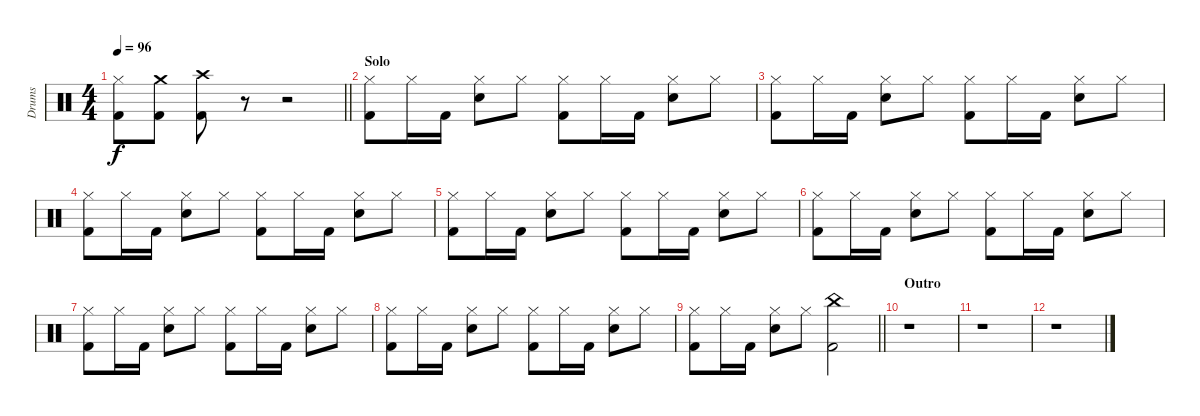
\track ("Drums" "Drums") {instrument percussion}
\staff {score}
\articulation defaults
\ts (4 4)
\tempo 96
\clef neutral
\barLineRight lightlight
\ks c
("Hi-Hat (closed)" "Kick (hit) 2").8{dy f} ("Crash medium (hit)" "Kick (hit) 2").8 ("Crash high (hit)" "Kick (hit) 2").8 r.8 r.2 |
\section ("" "Solo")
("Hi-Hat (closed)" "Kick (hit) 2").8 "Hi-Hat (closed)".16 "Kick (hit) 2".16 ("Hi-Hat (closed)" "Electric Snare (hit)").8 "Hi-Hat (closed)".8 ("Hi-Hat (closed)" "Kick (hit) 2").8 "Hi-Hat (closed)".16 "Kick (hit) 2".16 ("Hi-Hat (closed)" "Electric Snare (hit)").8 "Hi-Hat (closed)".8 |
("Hi-Hat (closed)" "Kick (hit) 2").8 "Hi-Hat (closed)".16 "Kick (hit) 2".16 ("Hi-Hat (closed)" "Electric Snare (hit)").8 "Hi-Hat (closed)".8 ("Hi-Hat (closed)" "Kick (hit) 2").8 "Hi-Hat (closed)".16 "Kick (hit) 2".16 ("Hi-Hat (closed)" "Electric Snare (hit)").8 "Hi-Hat (closed)".8 |
("Hi-Hat (closed)" "Kick (hit) 2").8 "Hi-Hat (closed)".16 "Kick (hit) 2".16 ("Hi-Hat (closed)" "Electric Snare (hit)").8 "Hi-Hat (closed)".8 ("Hi-Hat (closed)" "Kick (hit) 2").8 "Hi-Hat (closed)".16 "Kick (hit) 2".16 ("Hi-Hat (closed)" "Electric Snare (hit)").8 "Hi-Hat (closed)".8 |
("Hi-Hat (closed)" "Kick (hit) 2").8 "Hi-Hat (closed)".16 "Kick (hit) 2".16 ("Hi-Hat (closed)" "Electric Snare (hit)").8 "Hi-Hat (closed)".8 ("Hi-Hat (closed)" "Kick (hit) 2").8 "Hi-Hat (closed)".16 "Kick (hit) 2".16 ("Hi-Hat (closed)" "Electric Snare (hit)").8 "Hi-Hat (closed)".8 |
("Hi-Hat (closed)" "Kick (hit) 2").8 "Hi-Hat (closed)".16 "Kick (hit) 2".16 ("Hi-Hat (closed)" "Electric Snare (hit)").8 "Hi-Hat (closed)".8 ("Hi-Hat (closed)" "Kick (hit) 2").8 "Hi-Hat (closed)".16 "Kick (hit) 2".16 ("Hi-Hat (closed)" "Electric Snare (hit)").8 "Hi-Hat (closed)".8 |
("Hi-Hat (closed)" "Kick (hit) 2").8 "Hi-Hat (closed)".16 "Kick (hit) 2".16 ("Hi-Hat (closed)" "Electric Snare (hit)").8 "Hi-Hat (closed)".8 ("Hi-Hat (closed)" "Kick (hit) 2").8 "Hi-Hat (closed)".16 "Kick (hit) 2".16 ("Hi-Hat (closed)" "Electric Snare (hit)").8 "Hi-Hat (closed)".8 |
("Hi-Hat (closed)" "Kick (hit) 2").8 "Hi-Hat (closed)".16 "Kick (hit) 2".16 ("Hi-Hat (closed)" "Electric Snare (hit)").8 "Hi-Hat (closed)".8 ("Hi-Hat (closed)" "Kick (hit) 2").8 "Hi-Hat (closed)".16 "Kick (hit) 2".16 ("Hi-Hat (closed)" "Electric Snare (hit)").8 "Hi-Hat (closed)".8 |
\barLineRight lightlight
("Hi-Hat (closed)" "Kick (hit) 2").8 "Hi-Hat (closed)".16 "Kick (hit) 2".16 ("Hi-Hat (closed)" "Electric Snare (hit)").8 "Hi-Hat (closed)".8 ("China (hit)" "Kick (hit) 2").2 |
\section ("" "Outro")
r.1 |
r.1 |
r.1
